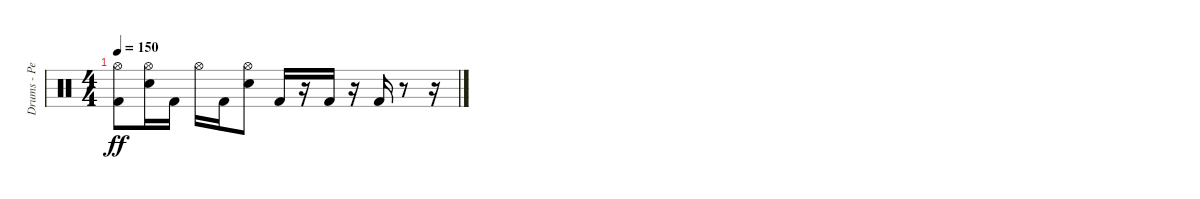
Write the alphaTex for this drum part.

\track ("Drums - Pete Finestone" "Drums - Pe") {instrument percussion}
\staff {score}
\articulation defaults
\ts (4 4)
\tempo 150
\clef neutral
\ks c
("Kick (hit) 2" "Hi-Hat (open)").8{dy ff} ("Electric Snare (hit)" "Hi-Hat (open)").16 "Kick (hit) 2".16 "Hi-Hat (open)".16 "Kick (hit) 2".16 ("Electric Snare (hit)" "Hi-Hat (open)").8 "Kick (hit) 2".16 r.16 "Kick (hit) 2".16 r.16 "Kick (hit) 2".16 r.8 r.16
